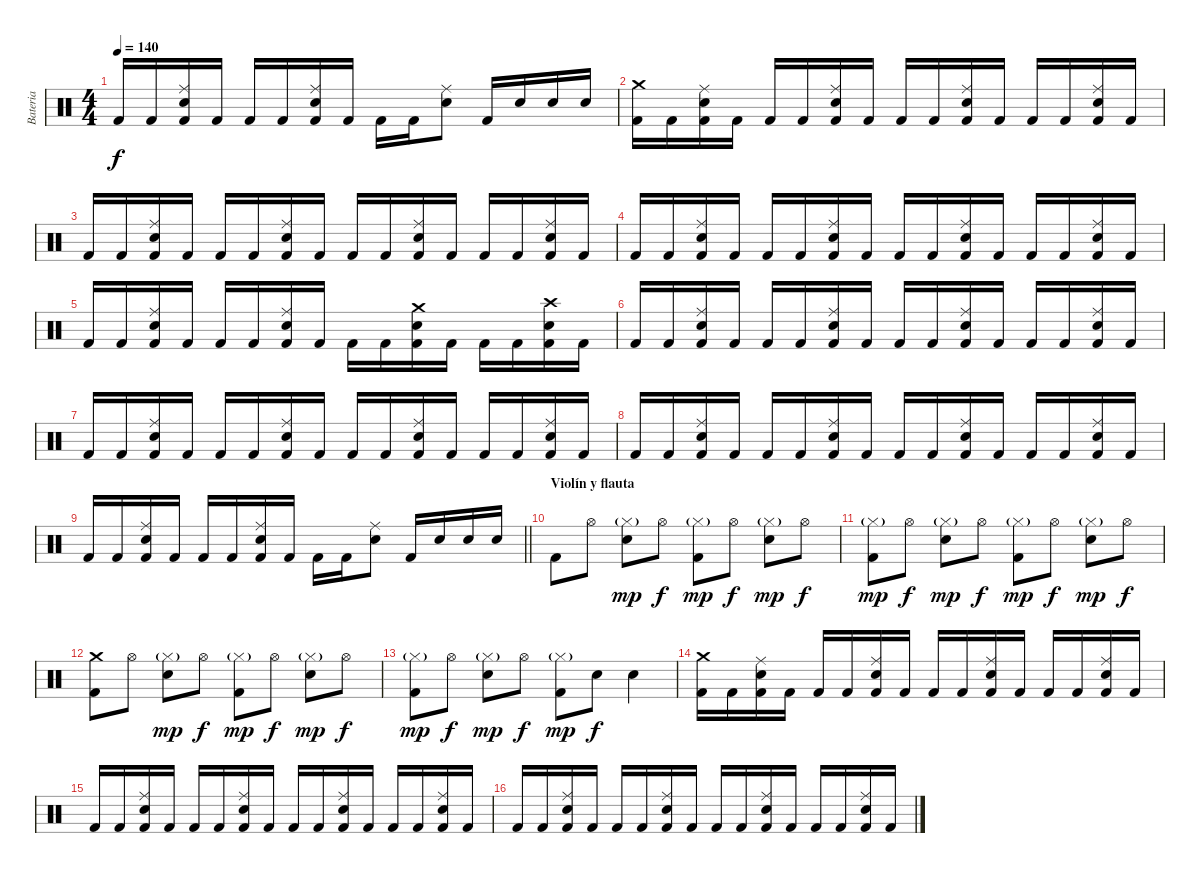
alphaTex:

\track ("Bateria" "Bateria") {instrument percussion}
\staff {score}
\articulation defaults
\ts (4 4)
\tempo 140
\clef neutral
\ks c "Kick (hit) 2".16{dy f} "Kick (hit) 2".16
("Ride (middle)" "Snare (hit) 2" "Kick (hit) 2").16 "Kick (hit) 2".16 "Kick (hit) 2".16 "Kick (hit) 2".16 ("Ride (middle)" "Snare (hit) 2" "Kick (hit) 2").16 "Kick (hit) 2".16 "Kick (hit) 2".16 "Kick (hit) 2".16 ("Ride (middle)" "Snare (hit) 2").8 "Kick (hit) 2".16 "Snare (hit) 2".16 "Snare (hit) 2".16 "Snare (hit) 2".16 |
("Crash medium (hit)" "Kick (hit) 2").16 "Kick (hit) 2".16 ("Ride (middle)" "Snare (hit) 2" "Kick (hit) 2").16 "Kick (hit) 2".16 "Kick (hit) 2".16 "Kick (hit) 2".16 ("Ride (middle)" "Snare (hit) 2" "Kick (hit) 2").16 "Kick (hit) 2".16 "Kick (hit) 2".16 "Kick (hit) 2".16 ("Ride (middle)" "Snare (hit) 2" "Kick (hit) 2").16 "Kick (hit) 2".16 "Kick (hit) 2".16 "Kick (hit) 2".16 ("Ride (middle)" "Snare (hit) 2" "Kick (hit) 2").16 "Kick (hit) 2".16 |
"Kick (hit) 2".16 "Kick (hit) 2".16 ("Ride (middle)" "Snare (hit) 2" "Kick (hit) 2").16 "Kick (hit) 2".16 "Kick (hit) 2".16 "Kick (hit) 2".16 ("Ride (middle)" "Snare (hit) 2" "Kick (hit) 2").16 "Kick (hit) 2".16 "Kick (hit) 2".16 "Kick (hit) 2".16 ("Ride (middle)" "Snare (hit) 2" "Kick (hit) 2").16 "Kick (hit) 2".16 "Kick (hit) 2".16 "Kick (hit) 2".16 ("Ride (middle)" "Snare (hit) 2" "Kick (hit) 2").16 "Kick (hit) 2".16 |
"Kick (hit) 2".16 "Kick (hit) 2".16 ("Ride (middle)" "Snare (hit) 2" "Kick (hit) 2").16 "Kick (hit) 2".16 "Kick (hit) 2".16 "Kick (hit) 2".16 ("Ride (middle)" "Snare (hit) 2" "Kick (hit) 2").16 "Kick (hit) 2".16 "Kick (hit) 2".16 "Kick (hit) 2".16 ("Ride (middle)" "Snare (hit) 2" "Kick (hit) 2").16 "Kick (hit) 2".16 "Kick (hit) 2".16 "Kick (hit) 2".16 ("Ride (middle)" "Snare (hit) 2" "Kick (hit) 2").16 "Kick (hit) 2".16 |
"Kick (hit) 2".16 "Kick (hit) 2".16 ("Ride (middle)" "Snare (hit) 2" "Kick (hit) 2").16 "Kick (hit) 2".16 "Kick (hit) 2".16 "Kick (hit) 2".16 ("Ride (middle)" "Snare (hit) 2" "Kick (hit) 2").16 "Kick (hit) 2".16 "Kick (hit) 2".16 "Kick (hit) 2".16 ("Crash medium (hit)" "Snare (hit) 2" "Kick (hit) 2").16 "Kick (hit) 2".16 "Kick (hit) 2".16 "Kick (hit) 2".16 ("Crash high (hit)" "Snare (hit) 2" "Kick (hit) 2").16 "Kick (hit) 2".16 |
"Kick (hit) 2".16 "Kick (hit) 2".16 ("Ride (middle)" "Snare (hit) 2" "Kick (hit) 2").16 "Kick (hit) 2".16 "Kick (hit) 2".16 "Kick (hit) 2".16 ("Ride (middle)" "Snare (hit) 2" "Kick (hit) 2").16 "Kick (hit) 2".16 "Kick (hit) 2".16 "Kick (hit) 2".16 ("Ride (middle)" "Snare (hit) 2" "Kick (hit) 2").16 "Kick (hit) 2".16 "Kick (hit) 2".16 "Kick (hit) 2".16 ("Ride (middle)" "Snare (hit) 2" "Kick (hit) 2").16 "Kick (hit) 2".16 |
"Kick (hit) 2".16 "Kick (hit) 2".16 ("Ride (middle)" "Snare (hit) 2" "Kick (hit) 2").16 "Kick (hit) 2".16 "Kick (hit) 2".16 "Kick (hit) 2".16 ("Ride (middle)" "Snare (hit) 2" "Kick (hit) 2").16 "Kick (hit) 2".16 "Kick (hit) 2".16 "Kick (hit) 2".16 ("Ride (middle)" "Snare (hit) 2" "Kick (hit) 2").16 "Kick (hit) 2".16 "Kick (hit) 2".16 "Kick (hit) 2".16 ("Ride (middle)" "Snare (hit) 2" "Kick (hit) 2").16 "Kick (hit) 2".16 |
"Kick (hit) 2".16 "Kick (hit) 2".16 ("Ride (middle)" "Snare (hit) 2" "Kick (hit) 2").16 "Kick (hit) 2".16 "Kick (hit) 2".16 "Kick (hit) 2".16 ("Ride (middle)" "Snare (hit) 2" "Kick (hit) 2").16 "Kick (hit) 2".16 "Kick (hit) 2".16 "Kick (hit) 2".16 ("Ride (middle)" "Snare (hit) 2" "Kick (hit) 2").16 "Kick (hit) 2".16 "Kick (hit) 2".16 "Kick (hit) 2".16 ("Ride (middle)" "Snare (hit) 2" "Kick (hit) 2").16 "Kick (hit) 2".16 |
\barLineRight lightlight "Kick (hit) 2".16 "Kick (hit) 2".16
("Ride (middle)" "Snare (hit) 2" "Kick (hit) 2").16 "Kick (hit) 2".16 "Kick (hit) 2".16 "Kick (hit) 2".16 ("Ride (middle)" "Snare (hit) 2" "Kick (hit) 2").16 "Kick (hit) 2".16 "Kick (hit) 2".16 "Kick (hit) 2".16 ("Ride (middle)" "Snare (hit) 2").8 "Kick (hit) 2".16 "Snare (hit) 2".16 "Snare (hit) 2".16 "Snare (hit) 2".16 |
\section ("" "Violín y flauta")
"Kick (hit) 2".8 "Hi-Hat (open)".8 ("Hi-Hat (closed)"{g} "Snare (hit) 2").8{dy mp} "Hi-Hat (open)".8{dy f} ("Hi-Hat (closed)"{g} "Kick (hit) 2").8{dy mp} "Hi-Hat (open)".8{dy f} ("Hi-Hat (closed)"{g} "Snare (hit) 2").8{dy mp} "Hi-Hat (open)".8{dy f} |
("Hi-Hat (closed)"{g} "Kick (hit) 2").8{dy mp} "Hi-Hat (open)".8{dy f} ("Hi-Hat (closed)"{g} "Snare (hit) 2").8{dy mp} "Hi-Hat (open)".8{dy f} ("Hi-Hat (closed)"{g} "Kick (hit) 2").8{dy mp} "Hi-Hat (open)".8{dy f} ("Hi-Hat (closed)"{g} "Snare (hit) 2").8{dy mp} "Hi-Hat (open)".8{dy f} |
("Crash medium (hit)" "Kick (hit) 2").8 "Hi-Hat (open)".8 ("Hi-Hat (closed)"{g} "Snare (hit) 2").8{dy mp} "Hi-Hat (open)".8{dy f} ("Hi-Hat (closed)"{g} "Kick (hit) 2").8{dy mp} "Hi-Hat (open)".8{dy f} ("Hi-Hat (closed)"{g} "Snare (hit) 2").8{dy mp} "Hi-Hat (open)".8{dy f} |
("Hi-Hat (closed)"{g} "Kick (hit) 2").8{dy mp} "Hi-Hat (open)".8{dy f} ("Hi-Hat (closed)"{g} "Snare (hit) 2").8{dy mp} "Hi-Hat (open)".8{dy f} ("Hi-Hat (closed)"{g} "Kick (hit) 2").8{dy mp} "Snare (hit) 2".8{dy f} "Snare (hit) 2".4 |
("Crash medium (hit)" "Kick (hit) 2").16 "Kick (hit) 2".16 ("Ride (middle)" "Snare (hit) 2" "Kick (hit) 2").16 "Kick (hit) 2".16 "Kick (hit) 2".16 "Kick (hit) 2".16 ("Ride (middle)" "Snare (hit) 2" "Kick (hit) 2").16 "Kick (hit) 2".16 "Kick (hit) 2".16 "Kick (hit) 2".16 ("Ride (middle)" "Snare (hit) 2" "Kick (hit) 2").16 "Kick (hit) 2".16 "Kick (hit) 2".16 "Kick (hit) 2".16 ("Ride (middle)" "Snare (hit) 2" "Kick (hit) 2").16 "Kick (hit) 2".16 |
"Kick (hit) 2".16 "Kick (hit) 2".16 ("Ride (middle)" "Snare (hit) 2" "Kick (hit) 2").16 "Kick (hit) 2".16 "Kick (hit) 2".16 "Kick (hit) 2".16 ("Ride (middle)" "Snare (hit) 2" "Kick (hit) 2").16 "Kick (hit) 2".16 "Kick (hit) 2".16 "Kick (hit) 2".16 ("Ride (middle)" "Snare (hit) 2" "Kick (hit) 2").16 "Kick (hit) 2".16 "Kick (hit) 2".16 "Kick (hit) 2".16 ("Ride (middle)" "Snare (hit) 2" "Kick (hit) 2").16 "Kick (hit) 2".16 |
"Kick (hit) 2".16 "Kick (hit) 2".16 ("Ride (middle)" "Snare (hit) 2" "Kick (hit) 2").16 "Kick (hit) 2".16 "Kick (hit) 2".16 "Kick (hit) 2".16 ("Ride (middle)" "Snare (hit) 2" "Kick (hit) 2").16 "Kick (hit) 2".16 "Kick (hit) 2".16 "Kick (hit) 2".16 ("Ride (middle)" "Snare (hit) 2" "Kick (hit) 2").16 "Kick (hit) 2".16 "Kick (hit) 2".16 "Kick (hit) 2".16 ("Ride (middle)" "Snare (hit) 2" "Kick (hit) 2").16 "Kick (hit) 2".16
